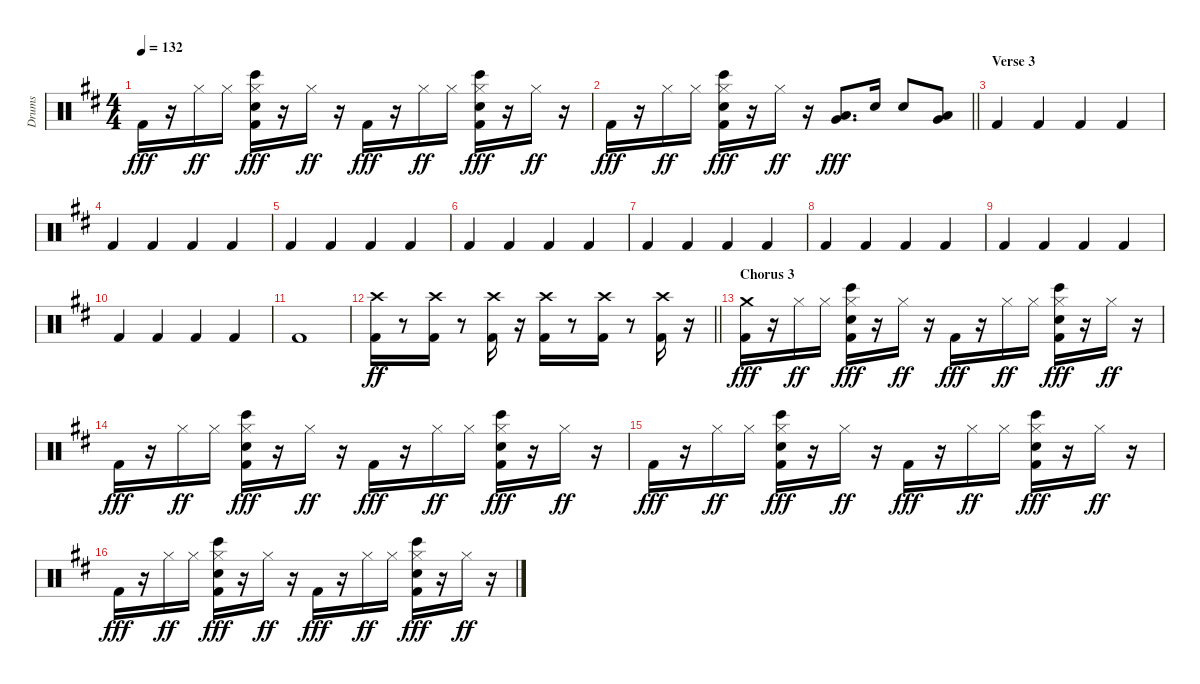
\track ("Drums" "Drums") {instrument percussion}
\staff {score}
\articulation defaults
\ts (4 4)
\tempo 132
\clef neutral
\ks d "Kick (hit) 2".16{dy fff}
r.16 "Hi-Hat (closed)".16{dy ff} "Hi-Hat (closed)".16 ("Hi-Hat (closed)" "Electric Snare (hit)" "Bongo High (hit)" "Kick (hit) 2").16{dy fff} r.16 "Hi-Hat (closed)".16{dy ff} r.16 "Kick (hit) 2".16{dy fff} r.16 "Hi-Hat (closed)".16{dy ff} "Hi-Hat (closed)".16 ("Hi-Hat (closed)" "Electric Snare (hit)" "Bongo High (hit)" "Kick (hit) 2").16{dy fff} r.16 "Hi-Hat (closed)".16{dy ff} r.16 |
\barLineRight lightlight "Kick (hit) 2".16{dy fff}
r.16 "Hi-Hat (closed)".16{dy ff} "Hi-Hat (closed)".16 ("Hi-Hat (closed)" "Electric Snare (hit)" "Bongo High (hit)" "Kick (hit) 2").16{dy fff} r.16 "Hi-Hat (closed)".16{dy ff} r.16 ("Very Low Tom (hit)" "Low Floor Tom (hit)").8{d dy fff} "Electric Snare (hit)".16 "Electric Snare (hit)".8 ("Very Low Tom (hit)" "Low Floor Tom (hit)").8 |
\section ("" "Verse 3")
"Kick (hit) 2".4 "Kick (hit) 2".4 "Kick (hit) 2".4 "Kick (hit) 2".4 |
"Kick (hit) 2".4 "Kick (hit) 2".4 "Kick (hit) 2".4 "Kick (hit) 2".4 |
"Kick (hit) 2".4 "Kick (hit) 2".4 "Kick (hit) 2".4 "Kick (hit) 2".4 |
"Kick (hit) 2".4 "Kick (hit) 2".4 "Kick (hit) 2".4 "Kick (hit) 2".4 |
"Kick (hit) 2".4 "Kick (hit) 2".4 "Kick (hit) 2".4 "Kick (hit) 2".4 |
"Kick (hit) 2".4 "Kick (hit) 2".4 "Kick (hit) 2".4 "Kick (hit) 2".4 |
"Kick (hit) 2".4 "Kick (hit) 2".4 "Kick (hit) 2".4 "Kick (hit) 2".4 |
"Kick (hit) 2".4 "Kick (hit) 2".4 "Kick (hit) 2".4 "Kick (hit) 2".4 |
"Kick (hit) 2".1 |
\barLineRight lightlight
("Crash high (hit)" "Kick (hit) 2").16{dy ff volume 13} r.8{volume 0} ("Crash high (hit)" "Kick (hit) 2").16{volume 13} r.8{volume 0} ("Crash high (hit)" "Kick (hit) 2").16{volume 13} r.16{volume 0} ("Crash high (hit)" "Kick (hit) 2").16{volume 13} r.8{volume 0} ("Crash high (hit)" "Kick (hit) 2").16{volume 13} r.8{volume 0} ("Crash high (hit)" "Kick (hit) 2").16{volume 13} r.16{volume 0} |
\section ("" "Chorus 3")
("Crash medium (hit)" "Kick (hit) 2").16{dy fff volume 13} r.16 "Hi-Hat (closed)".16{dy ff} "Hi-Hat (closed)".16 ("Hi-Hat (closed)" "Electric Snare (hit)" "Bongo High (hit)" "Kick (hit) 2").16{dy fff} r.16 "Hi-Hat (closed)".16{dy ff} r.16 "Kick (hit) 2".16{dy fff} r.16 "Hi-Hat (closed)".16{dy ff} "Hi-Hat (closed)".16 ("Hi-Hat (closed)" "Electric Snare (hit)" "Bongo High (hit)" "Kick (hit) 2").16{dy fff} r.16 "Hi-Hat (closed)".16{dy ff} r.16 |
"Kick (hit) 2".16{dy fff} r.16 "Hi-Hat (closed)".16{dy ff} "Hi-Hat (closed)".16 ("Hi-Hat (closed)" "Electric Snare (hit)" "Bongo High (hit)" "Kick (hit) 2").16{dy fff} r.16 "Hi-Hat (closed)".16{dy ff} r.16 "Kick (hit) 2".16{dy fff} r.16 "Hi-Hat (closed)".16{dy ff} "Hi-Hat (closed)".16 ("Hi-Hat (closed)" "Electric Snare (hit)" "Bongo High (hit)" "Kick (hit) 2").16{dy fff} r.16 "Hi-Hat (closed)".16{dy ff} r.16 |
"Kick (hit) 2".16{dy fff} r.16 "Hi-Hat (closed)".16{dy ff} "Hi-Hat (closed)".16 ("Hi-Hat (closed)" "Electric Snare (hit)" "Bongo High (hit)" "Kick (hit) 2").16{dy fff} r.16 "Hi-Hat (closed)".16{dy ff} r.16 "Kick (hit) 2".16{dy fff} r.16 "Hi-Hat (closed)".16{dy ff} "Hi-Hat (closed)".16 ("Hi-Hat (closed)" "Electric Snare (hit)" "Bongo High (hit)" "Kick (hit) 2").16{dy fff} r.16 "Hi-Hat (closed)".16{dy ff} r.16 |
"Kick (hit) 2".16{dy fff} r.16 "Hi-Hat (closed)".16{dy ff} "Hi-Hat (closed)".16 ("Hi-Hat (closed)" "Electric Snare (hit)" "Bongo High (hit)" "Kick (hit) 2").16{dy fff} r.16 "Hi-Hat (closed)".16{dy ff} r.16 "Kick (hit) 2".16{dy fff} r.16 "Hi-Hat (closed)".16{dy ff} "Hi-Hat (closed)".16 ("Hi-Hat (closed)" "Electric Snare (hit)" "Bongo High (hit)" "Kick (hit) 2").16{dy fff} r.16 "Hi-Hat (closed)".16{dy ff} r.16
